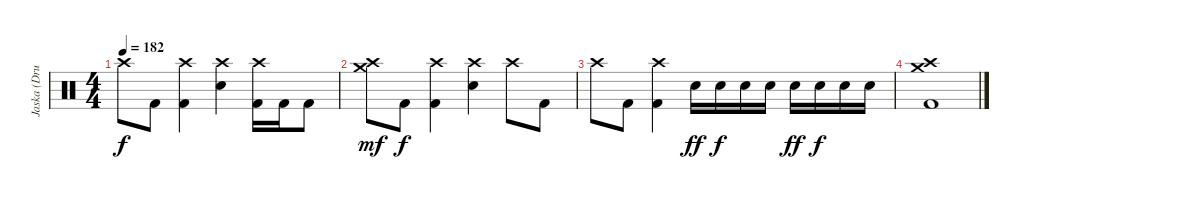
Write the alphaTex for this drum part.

\track ("Jaska (Drums)" "Jaska (Dru") {instrument percussion}
\staff {score}
\articulation defaults
\ts (4 4)
\tempo 182
\clef neutral
\ks c "Crash high (hit)".8{dy f} "Kick (hit) 2".8
("Crash high (hit)" "Kick (hit) 2").4 ("Crash high (hit)" "Electric Snare (hit)").4 ("Crash high (hit)" "Kick (hit) 2").16 "Kick (hit) 2".16 "Kick (hit) 2".8 |
("Crash medium (hit)" "Crash high (hit)").8{dy mf} "Kick (hit) 2".8{dy f} ("Crash high (hit)" "Kick (hit) 2").4 ("Crash high (hit)" "Electric Snare (hit)").4 "Crash high (hit)".8 "Kick (hit) 2".8 |
"Crash high (hit)".8 "Kick (hit) 2".8 ("Crash high (hit)" "Kick (hit) 2").4 "Electric Snare (hit)".16{dy ff} "Electric Snare (hit)".16{dy f} "Electric Snare (hit)".16 "Electric Snare (hit)".16 "Electric Snare (hit)".16{dy ff} "Electric Snare (hit)".16{dy f} "Electric Snare (hit)".16 "Electric Snare (hit)".16 |
("Crash medium (hit)" "Crash high (hit)" "Kick (hit) 2").1
